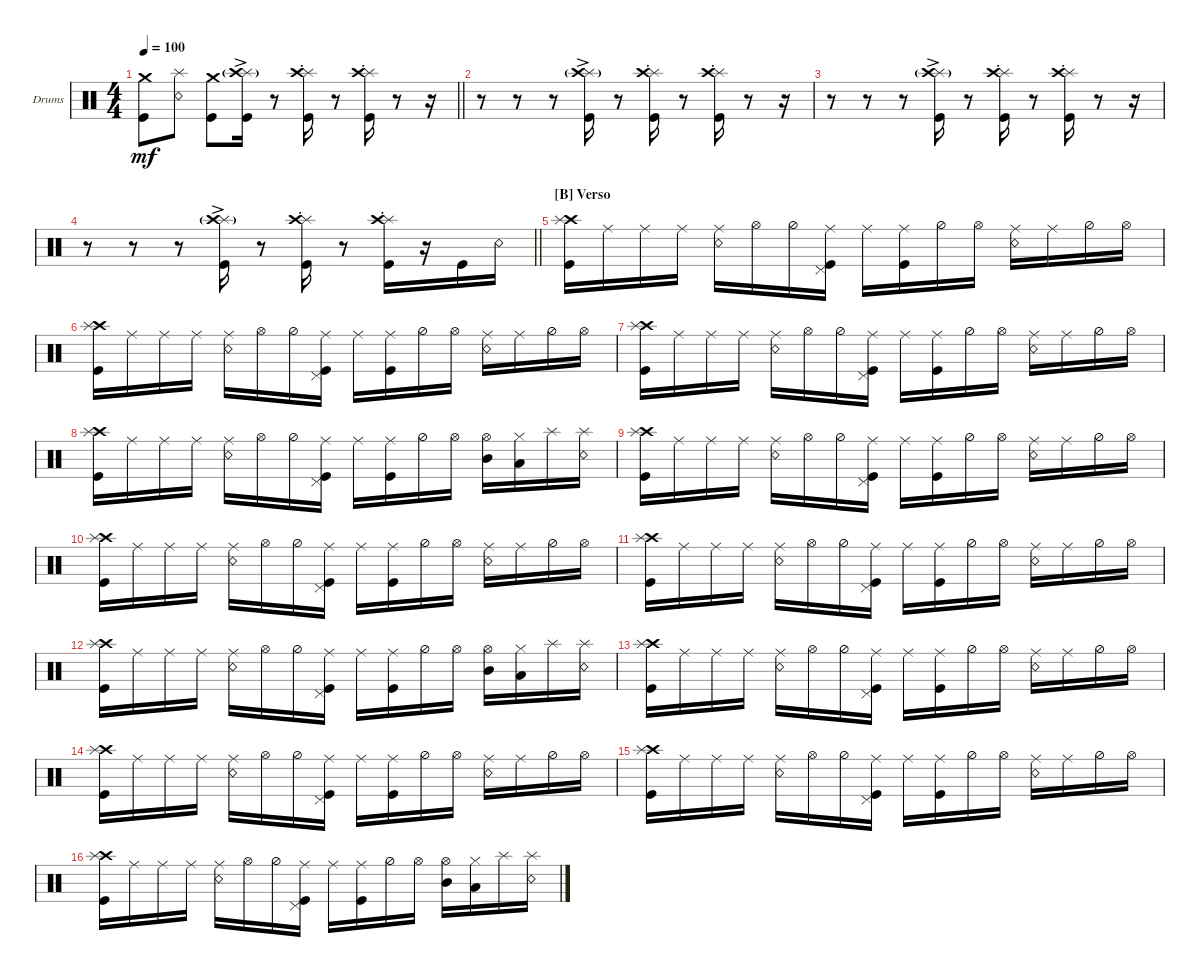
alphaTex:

\defaultSystemsLayout 4
\bracketExtendMode groupsimilarinstruments
\firstSystemTrackNameOrientation horizontal
\otherSystemsTrackNameOrientation horizontal
\track ("Bateria" "Drums") {multiBarRest instrument percussion}
\staff {score}
\articulation defaults
\ts (4 4)
\tempo 100
\clef neutral
\barLineRight lightlight
\ks c
("Kick (hit)" "Crash medium (hit)").8{dy mf} ("Snare (rim shot)" "Splash (hit)").8 ("Kick (hit)" "Crash medium (hit)").8 ("Splash (hit)"{g} "Kick (hit)"{ac} "Crash high (hit)"{g}).16 r.8 ("Splash (hit)" "Kick (hit)"{st} "Crash high (hit)").16 r.8 ("Splash (hit)" "Kick (hit)"{st} "Crash high (hit)").16 r.8 r.16 |
r.8 r.8 r.8 ("Splash (hit)"{g} "Kick (hit)"{ac} "Crash high (hit)"{g}).16 r.8 ("Splash (hit)" "Kick (hit)"{st} "Crash high (hit)").16 r.8 ("Splash (hit)" "Kick (hit)"{st} "Crash high (hit)").16 r.8 r.16 |
r.8 r.8 r.8 ("Splash (hit)"{g} "Kick (hit)"{ac} "Crash high (hit)"{g}).16 r.8 ("Splash (hit)" "Kick (hit)"{st} "Crash high (hit)").16 r.8 ("Splash (hit)" "Kick (hit)"{st} "Crash high (hit)").16 r.8 r.16 |
\barLineRight lightlight
r.8 r.8 r.8 ("Splash (hit)"{g} "Kick (hit)"{ac} "Crash high (hit)"{g}).16 r.8 ("Splash (hit)" "Kick (hit)"{st} "Crash high (hit)").16 r.8 ("Splash (hit)" "Kick (hit)"{st} "Crash high (hit)").16 r.16 "Kick (hit)".16 "Snare (rim shot)".16 |
\section ("B" "Verso")
("Kick (hit)" "Crash high (hit)" "Splash (hit)").16 "Ride (middle)".16 "Ride (middle)".16 "Ride (middle)".16 ("Ride (middle)" "Snare (rim shot)").16 "Hi-Hat (open)".16 "Hi-Hat (half)".16 ("Ride (middle)" "Kick (hit)" "Pedal Hi-Hat (hit)").16 "Ride (middle)".16 ("Ride (middle)" "Kick (hit)").16 "Hi-Hat (half)".16 "Hi-Hat (open)".16 ("Ride (middle)" "Snare (rim shot)").16 "Ride (middle)".16 "Hi-Hat (half)".16 "Hi-Hat (open)".16 |
("Kick (hit)" "Crash high (hit)" "Splash (hit)").16 "Ride (middle)".16 "Ride (middle)".16 "Ride (middle)".16 ("Ride (middle)" "Snare (rim shot)").16 "Hi-Hat (open)".16 "Hi-Hat (half)".16 ("Ride (middle)" "Kick (hit)" "Pedal Hi-Hat (hit)").16 "Ride (middle)".16 ("Ride (middle)" "Kick (hit)").16 "Hi-Hat (half)".16 "Hi-Hat (open)".16 ("Ride (middle)" "Snare (rim shot)").16 "Ride (middle)".16 "Hi-Hat (half)".16 "Hi-Hat (open)".16 |
("Kick (hit)" "Crash high (hit)" "Splash (hit)").16 "Ride (middle)".16 "Ride (middle)".16 "Ride (middle)".16 ("Ride (middle)" "Snare (rim shot)").16 "Hi-Hat (open)".16 "Hi-Hat (half)".16 ("Ride (middle)" "Kick (hit)" "Pedal Hi-Hat (hit)").16 "Ride (middle)".16 ("Ride (middle)" "Kick (hit)").16 "Hi-Hat (half)".16 "Hi-Hat (open)".16 ("Ride (middle)" "Snare (rim shot)").16 "Ride (middle)".16 "Hi-Hat (half)".16 "Hi-Hat (open)".16 |
("Kick (hit)" "Crash high (hit)" "Splash (hit)").16 "Ride (middle)".16 "Ride (middle)".16 "Ride (middle)".16 ("Ride (middle)" "Snare (rim shot)").16 "Hi-Hat (open)".16 "Hi-Hat (half)".16 ("Ride (middle)" "Kick (hit)" "Pedal Hi-Hat (hit)").16 "Ride (middle)".16 ("Ride (middle)" "Kick (hit)").16 "Hi-Hat (half)".16 "Hi-Hat (open)".16 ("Mid Tom (hit)" "Hi-Hat (open)").16 ("Low Tom (hit)" "Hi-Hat (closed)").16 "Splash (hit)".16 ("Snare (rim shot)" "Splash (hit)").16 |
("Kick (hit)" "Crash high (hit)" "Splash (hit)").16 "Ride (middle)".16 "Ride (middle)".16 "Ride (middle)".16 ("Ride (middle)" "Snare (rim shot)").16 "Hi-Hat (open)".16 "Hi-Hat (half)".16 ("Ride (middle)" "Kick (hit)" "Pedal Hi-Hat (hit)").16 "Ride (middle)".16 ("Ride (middle)" "Kick (hit)").16 "Hi-Hat (half)".16 "Hi-Hat (open)".16 ("Ride (middle)" "Snare (rim shot)").16 "Ride (middle)".16 "Hi-Hat (half)".16 "Hi-Hat (open)".16 |
("Kick (hit)" "Crash high (hit)" "Splash (hit)").16 "Ride (middle)".16 "Ride (middle)".16 "Ride (middle)".16 ("Ride (middle)" "Snare (rim shot)").16 "Hi-Hat (open)".16 "Hi-Hat (half)".16 ("Ride (middle)" "Kick (hit)" "Pedal Hi-Hat (hit)").16 "Ride (middle)".16 ("Ride (middle)" "Kick (hit)").16 "Hi-Hat (half)".16 "Hi-Hat (open)".16 ("Ride (middle)" "Snare (rim shot)").16 "Ride (middle)".16 "Hi-Hat (half)".16 "Hi-Hat (open)".16 |
("Kick (hit)" "Crash high (hit)" "Splash (hit)").16 "Ride (middle)".16 "Ride (middle)".16 "Ride (middle)".16 ("Ride (middle)" "Snare (rim shot)").16 "Hi-Hat (open)".16 "Hi-Hat (half)".16 ("Ride (middle)" "Kick (hit)" "Pedal Hi-Hat (hit)").16 "Ride (middle)".16 ("Ride (middle)" "Kick (hit)").16 "Hi-Hat (half)".16 "Hi-Hat (open)".16 ("Ride (middle)" "Snare (rim shot)").16 "Ride (middle)".16 "Hi-Hat (half)".16 "Hi-Hat (open)".16 |
("Kick (hit)" "Crash high (hit)" "Splash (hit)").16 "Ride (middle)".16 "Ride (middle)".16 "Ride (middle)".16 ("Ride (middle)" "Snare (rim shot)").16 "Hi-Hat (open)".16 "Hi-Hat (half)".16 ("Ride (middle)" "Kick (hit)" "Pedal Hi-Hat (hit)").16 "Ride (middle)".16 ("Ride (middle)" "Kick (hit)").16 "Hi-Hat (half)".16 "Hi-Hat (open)".16 ("Mid Tom (hit)" "Hi-Hat (open)").16 ("Low Tom (hit)" "Hi-Hat (closed)").16 "Splash (hit)".16 ("Snare (rim shot)" "Splash (hit)").16 |
("Kick (hit)" "Crash high (hit)" "Splash (hit)").16 "Ride (middle)".16 "Ride (middle)".16 "Ride (middle)".16 ("Ride (middle)" "Snare (rim shot)").16 "Hi-Hat (open)".16 "Hi-Hat (half)".16 ("Ride (middle)" "Kick (hit)" "Pedal Hi-Hat (hit)").16 "Ride (middle)".16 ("Ride (middle)" "Kick (hit)").16 "Hi-Hat (half)".16 "Hi-Hat (open)".16 ("Ride (middle)" "Snare (rim shot)").16 "Ride (middle)".16 "Hi-Hat (half)".16 "Hi-Hat (open)".16 |
("Kick (hit)" "Crash high (hit)" "Splash (hit)").16 "Ride (middle)".16 "Ride (middle)".16 "Ride (middle)".16 ("Ride (middle)" "Snare (rim shot)").16 "Hi-Hat (open)".16 "Hi-Hat (half)".16 ("Ride (middle)" "Kick (hit)" "Pedal Hi-Hat (hit)").16 "Ride (middle)".16 ("Ride (middle)" "Kick (hit)").16 "Hi-Hat (half)".16 "Hi-Hat (open)".16 ("Ride (middle)" "Snare (rim shot)").16 "Ride (middle)".16 "Hi-Hat (half)".16 "Hi-Hat (open)".16 |
("Kick (hit)" "Crash high (hit)" "Splash (hit)").16 "Ride (middle)".16 "Ride (middle)".16 "Ride (middle)".16 ("Ride (middle)" "Snare (rim shot)").16 "Hi-Hat (open)".16 "Hi-Hat (half)".16 ("Ride (middle)" "Kick (hit)" "Pedal Hi-Hat (hit)").16 "Ride (middle)".16 ("Ride (middle)" "Kick (hit)").16 "Hi-Hat (half)".16 "Hi-Hat (open)".16 ("Ride (middle)" "Snare (rim shot)").16 "Ride (middle)".16 "Hi-Hat (half)".16 "Hi-Hat (open)".16 |
("Kick (hit)" "Crash high (hit)" "Splash (hit)").16 "Ride (middle)".16 "Ride (middle)".16 "Ride (middle)".16 ("Ride (middle)" "Snare (rim shot)").16 "Hi-Hat (open)".16 "Hi-Hat (half)".16 ("Ride (middle)" "Kick (hit)" "Pedal Hi-Hat (hit)").16 "Ride (middle)".16 ("Ride (middle)" "Kick (hit)").16 "Hi-Hat (half)".16 "Hi-Hat (open)".16 ("Mid Tom (hit)" "Hi-Hat (open)").16 ("Low Tom (hit)" "Hi-Hat (closed)").16 "Splash (hit)".16 ("Snare (rim shot)" "Splash (hit)").16
